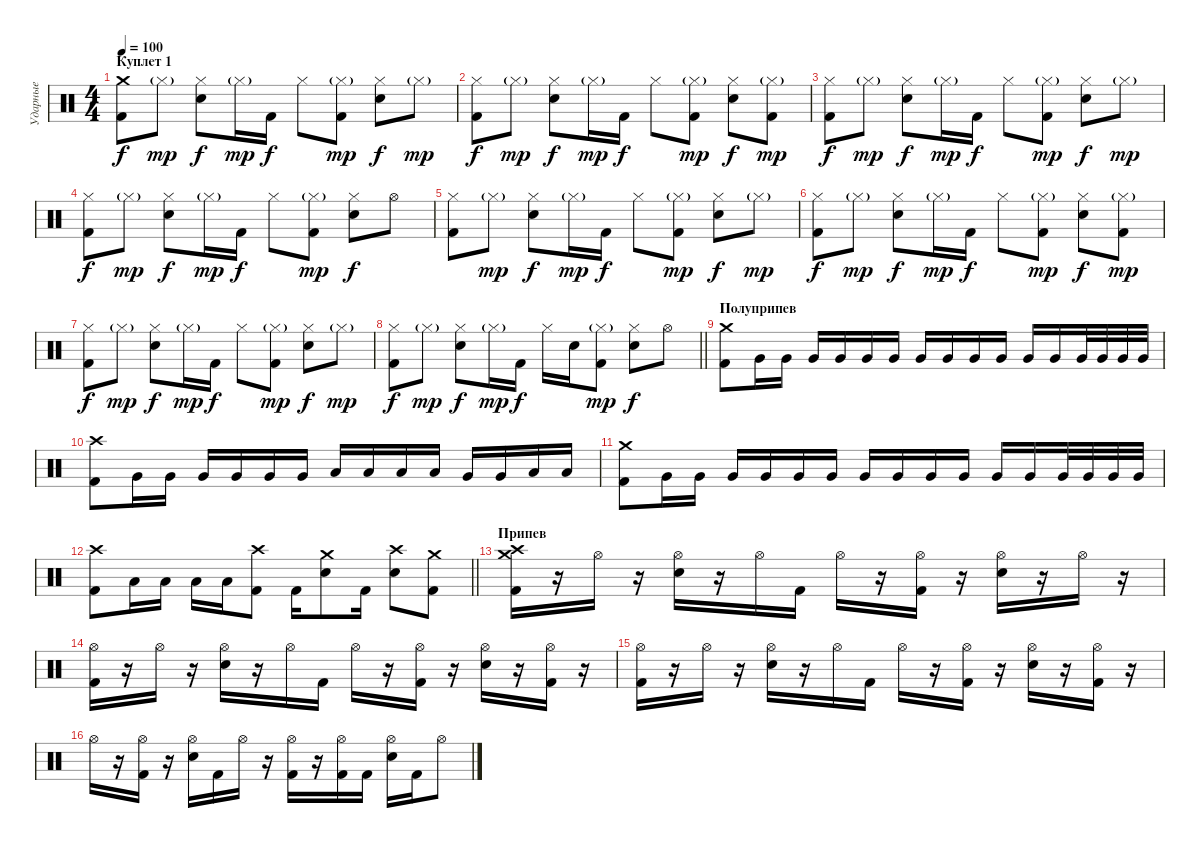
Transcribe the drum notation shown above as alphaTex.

\track ("Ударные" "Ударные") {instrument percussion}
\staff {score}
\articulation defaults
\ts (4 4)
\section ("" "Куплет 1")
\tempo 100
\clef neutral
\ks c
("Crash medium (hit)" "Kick (hit) 2").8{dy f} "Hi-Hat (closed)"{g}.8{dy mp} ("Hi-Hat (closed)" "Snare (hit) 2").8{dy f} "Hi-Hat (closed)"{g}.16{dy mp} "Kick (hit) 2".16{dy f} "Hi-Hat (closed)".8 ("Hi-Hat (closed)"{g} "Kick (hit) 2").8{dy mp} ("Hi-Hat (closed)" "Snare (hit) 2").8{dy f} "Hi-Hat (closed)"{g}.8{dy mp} |
("Hi-Hat (closed)" "Kick (hit) 2").8{dy f} "Hi-Hat (closed)"{g}.8{dy mp} ("Hi-Hat (closed)" "Snare (hit) 2").8{dy f} "Hi-Hat (closed)"{g}.16{dy mp} "Kick (hit) 2".16{dy f} "Hi-Hat (closed)".8 ("Hi-Hat (closed)"{g} "Kick (hit) 2").8{dy mp} ("Hi-Hat (closed)" "Snare (hit) 2").8{dy f} ("Hi-Hat (closed)"{g} "Kick (hit) 2").8{dy mp} |
("Hi-Hat (closed)" "Kick (hit) 2").8{dy f} "Hi-Hat (closed)"{g}.8{dy mp} ("Hi-Hat (closed)" "Snare (hit) 2").8{dy f} "Hi-Hat (closed)"{g}.16{dy mp} "Kick (hit) 2".16{dy f} "Hi-Hat (closed)".8 ("Hi-Hat (closed)"{g} "Kick (hit) 2").8{dy mp} ("Hi-Hat (closed)" "Snare (hit) 2").8{dy f} "Hi-Hat (closed)"{g}.8{dy mp} |
("Hi-Hat (closed)" "Kick (hit) 2").8{dy f} "Hi-Hat (closed)"{g}.8{dy mp} ("Hi-Hat (closed)" "Snare (hit) 2").8{dy f} "Hi-Hat (closed)"{g}.16{dy mp} "Kick (hit) 2".16{dy f} "Hi-Hat (closed)".8 ("Hi-Hat (closed)"{g} "Kick (hit) 2").8{dy mp} ("Hi-Hat (closed)" "Snare (hit) 2").8{dy f} "Hi-Hat (open)".8 |
("Hi-Hat (closed)" "Kick (hit) 2").8 "Hi-Hat (closed)"{g}.8{dy mp} ("Hi-Hat (closed)" "Snare (hit) 2").8{dy f} "Hi-Hat (closed)"{g}.16{dy mp} "Kick (hit) 2".16{dy f} "Hi-Hat (closed)".8 ("Hi-Hat (closed)"{g} "Kick (hit) 2").8{dy mp} ("Hi-Hat (closed)" "Snare (hit) 2").8{dy f} "Hi-Hat (closed)"{g}.8{dy mp} |
("Hi-Hat (closed)" "Kick (hit) 2").8{dy f} "Hi-Hat (closed)"{g}.8{dy mp} ("Hi-Hat (closed)" "Snare (hit) 2").8{dy f} "Hi-Hat (closed)"{g}.16{dy mp} "Kick (hit) 2".16{dy f} "Hi-Hat (closed)".8 ("Hi-Hat (closed)"{g} "Kick (hit) 2").8{dy mp} ("Hi-Hat (closed)" "Snare (hit) 2").8{dy f} ("Hi-Hat (closed)"{g} "Kick (hit) 2").8{dy mp} |
("Hi-Hat (closed)" "Kick (hit) 2").8{dy f} "Hi-Hat (closed)"{g}.8{dy mp} ("Hi-Hat (closed)" "Snare (hit) 2").8{dy f} "Hi-Hat (closed)"{g}.16{dy mp} "Kick (hit) 2".16{dy f} "Hi-Hat (closed)".8 ("Hi-Hat (closed)"{g} "Kick (hit) 2").8{dy mp} ("Hi-Hat (closed)" "Snare (hit) 2").8{dy f} "Hi-Hat (closed)"{g}.8{dy mp} |
\barLineRight lightlight
("Hi-Hat (closed)" "Kick (hit) 2").8{dy f} "Hi-Hat (closed)"{g}.8{dy mp} ("Hi-Hat (closed)" "Snare (hit) 2").8{dy f} "Hi-Hat (closed)"{g}.16{dy mp} "Kick (hit) 2".16{dy f} "Hi-Hat (closed)".16 "Snare (hit) 2".16 ("Hi-Hat (closed)"{g} "Kick (hit) 2").8{dy mp} ("Hi-Hat (closed)" "Snare (hit) 2").8{dy f} "Hi-Hat (open)".8 |
\section ("" "Полуприпев")
("Crash medium (hit)" "Kick (hit) 2").8 "Very Low Tom (hit)".16 "Very Low Tom (hit)".16 "Very Low Tom (hit)".16 "Very Low Tom (hit)".16 "Very Low Tom (hit)".16 "Very Low Tom (hit)".16 "Very Low Tom (hit)".16 "Very Low Tom (hit)".16 "Very Low Tom (hit)".16 "Very Low Tom (hit)".16 "Very Low Tom (hit)".16 "Very Low Tom (hit)".16 "Very Low Tom (hit)".32 "Very Low Tom (hit)".32 "Very Low Tom (hit)".32 "Very Low Tom (hit)".32 |
("Crash high (hit)" "Kick (hit) 2").8 "Very Low Tom (hit)".16 "Very Low Tom (hit)".16 "Very Low Tom (hit)".16 "Very Low Tom (hit)".16 "Very Low Tom (hit)".16 "Very Low Tom (hit)".16 "Low Tom (hit)".16 "Low Tom (hit)".16 "Low Tom (hit)".16 "Low Tom (hit)".16 "Very Low Tom (hit)".16 "Very Low Tom (hit)".16 "Low Tom (hit)".16 "Low Tom (hit)".16 |
("Crash medium (hit)" "Kick (hit) 2").8 "Very Low Tom (hit)".16 "Very Low Tom (hit)".16 "Very Low Tom (hit)".16 "Very Low Tom (hit)".16 "Very Low Tom (hit)".16 "Very Low Tom (hit)".16 "Very Low Tom (hit)".16 "Very Low Tom (hit)".16 "Very Low Tom (hit)".16 "Very Low Tom (hit)".16 "Very Low Tom (hit)".16 "Very Low Tom (hit)".16 "Very Low Tom (hit)".32 "Very Low Tom (hit)".32 "Very Low Tom (hit)".32 "Very Low Tom (hit)".32 |
\barLineRight lightlight
("Crash high (hit)" "Kick (hit) 2").8 "Low Tom (hit)".16 "Low Tom (hit)".16 "Low Tom (hit)".16 "Low Tom (hit)".16 ("Crash high (hit)" "Kick (hit) 2").8 "Kick (hit) 2".16 ("Crash medium (hit)" "Snare (hit) 2").8 "Kick (hit) 2".16 ("Crash high (hit)" "Snare (hit) 2").8 ("Crash medium (hit)" "Kick (hit) 2").8 |
\section ("" "Припев")
("Crash medium (hit)" "Crash high (hit)" "Kick (hit) 2").16 r.16 "Hi-Hat (open)".16 r.16 ("Hi-Hat (open)" "Snare (hit) 2").16 r.16 "Hi-Hat (open)".16 "Kick (hit) 2".16 "Hi-Hat (open)".16 r.16 ("Hi-Hat (open)" "Kick (hit) 2").16 r.16 ("Hi-Hat (open)" "Snare (hit) 2").16 r.16 "Hi-Hat (open)".16 r.16 |
("Hi-Hat (open)" "Kick (hit) 2").16 r.16 "Hi-Hat (open)".16 r.16 ("Hi-Hat (open)" "Snare (hit) 2").16 r.16 "Hi-Hat (open)".16 "Kick (hit) 2".16 "Hi-Hat (open)".16 r.16 ("Hi-Hat (open)" "Kick (hit) 2").16 r.16 ("Hi-Hat (open)" "Snare (hit) 2").16 r.16 ("Hi-Hat (open)" "Kick (hit) 2").16 r.16 |
("Hi-Hat (open)" "Kick (hit) 2").16 r.16 "Hi-Hat (open)".16 r.16 ("Hi-Hat (open)" "Snare (hit) 2").16 r.16 "Hi-Hat (open)".16 "Kick (hit) 2".16 "Hi-Hat (open)".16 r.16 ("Hi-Hat (open)" "Kick (hit) 2").16 r.16 ("Hi-Hat (open)" "Snare (hit) 2").16 r.16 ("Hi-Hat (open)" "Kick (hit) 2").16 r.16 |
"Hi-Hat (open)".16 r.16 ("Hi-Hat (open)" "Kick (hit) 2").16 r.16 ("Hi-Hat (open)" "Snare (hit) 2").16 "Kick (hit) 2".16 "Hi-Hat (open)".16 r.16 ("Hi-Hat (open)" "Kick (hit) 2").16 r.16 ("Hi-Hat (open)" "Kick (hit) 2").16 "Kick (hit) 2".16 ("Hi-Hat (open)" "Snare (hit) 2").16 "Kick (hit) 2".16 "Hi-Hat (open)".8
